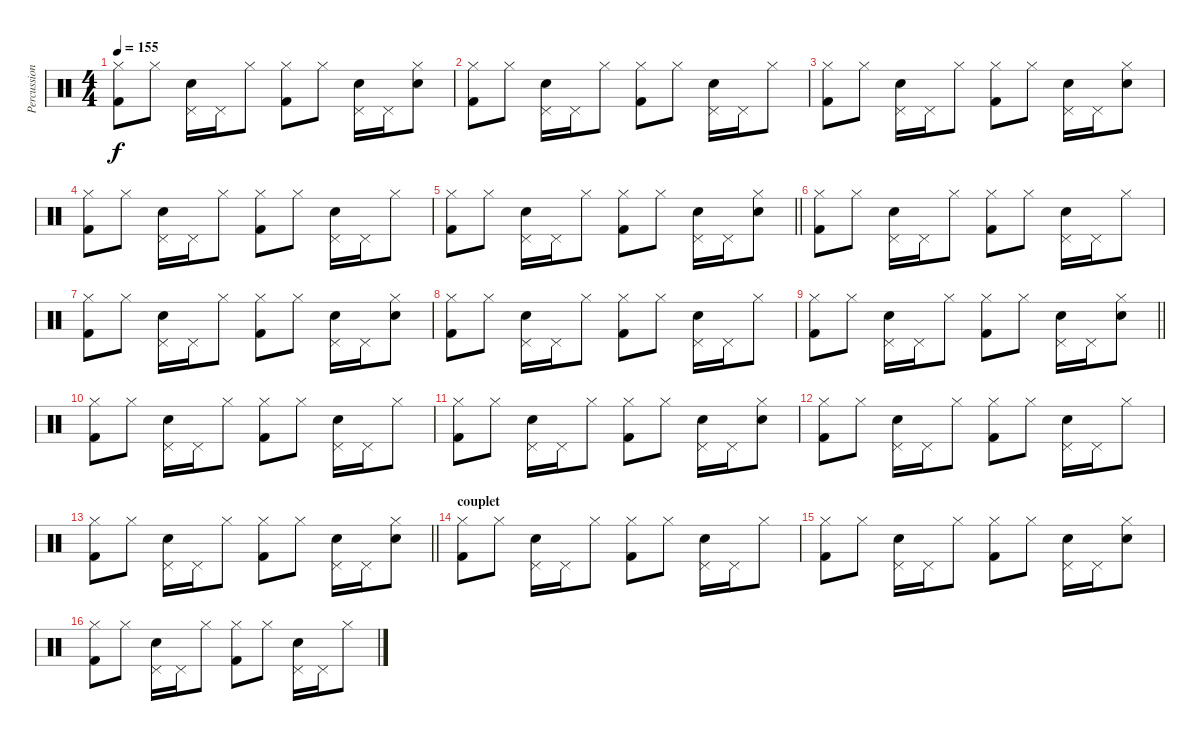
\track ("Percussions" "Percussion") {instrument percussion}
\staff {score}
\articulation defaults
\ts (4 4)
\tempo 155
\clef neutral
\ks c
("Kick (hit) 2" "Hi-Hat (closed)").8{dy f} "Hi-Hat (closed)".8 ("Electric Snare (hit)" "Pedal Hi-Hat (hit)").16 "Pedal Hi-Hat (hit)".16 "Hi-Hat (closed)".8 ("Kick (hit) 2" "Hi-Hat (closed)").8 "Hi-Hat (closed)".8 ("Electric Snare (hit)" "Pedal Hi-Hat (hit)").16 "Pedal Hi-Hat (hit)".16 ("Electric Snare (hit)" "Hi-Hat (closed)").8 |
("Kick (hit) 2" "Hi-Hat (closed)").8 "Hi-Hat (closed)".8 ("Electric Snare (hit)" "Pedal Hi-Hat (hit)").16 "Pedal Hi-Hat (hit)".16 "Hi-Hat (closed)".8 ("Kick (hit) 2" "Hi-Hat (closed)").8 "Hi-Hat (closed)".8 ("Electric Snare (hit)" "Pedal Hi-Hat (hit)").16 "Pedal Hi-Hat (hit)".16 "Hi-Hat (closed)".8 |
("Kick (hit) 2" "Hi-Hat (closed)").8 "Hi-Hat (closed)".8 ("Electric Snare (hit)" "Pedal Hi-Hat (hit)").16 "Pedal Hi-Hat (hit)".16 "Hi-Hat (closed)".8 ("Kick (hit) 2" "Hi-Hat (closed)").8 "Hi-Hat (closed)".8 ("Electric Snare (hit)" "Pedal Hi-Hat (hit)").16 "Pedal Hi-Hat (hit)".16 ("Electric Snare (hit)" "Hi-Hat (closed)").8 |
("Kick (hit) 2" "Hi-Hat (closed)").8 "Hi-Hat (closed)".8 ("Electric Snare (hit)" "Pedal Hi-Hat (hit)").16 "Pedal Hi-Hat (hit)".16 "Hi-Hat (closed)".8 ("Kick (hit) 2" "Hi-Hat (closed)").8 "Hi-Hat (closed)".8 ("Electric Snare (hit)" "Pedal Hi-Hat (hit)").16 "Pedal Hi-Hat (hit)".16 "Hi-Hat (closed)".8 |
\barLineRight lightlight
("Kick (hit) 2" "Hi-Hat (closed)").8 "Hi-Hat (closed)".8 ("Electric Snare (hit)" "Pedal Hi-Hat (hit)").16 "Pedal Hi-Hat (hit)".16 "Hi-Hat (closed)".8 ("Kick (hit) 2" "Hi-Hat (closed)").8 "Hi-Hat (closed)".8 ("Electric Snare (hit)" "Pedal Hi-Hat (hit)").16 "Pedal Hi-Hat (hit)".16 ("Electric Snare (hit)" "Hi-Hat (closed)").8 |
("Kick (hit) 2" "Hi-Hat (closed)").8 "Hi-Hat (closed)".8 ("Electric Snare (hit)" "Pedal Hi-Hat (hit)").16 "Pedal Hi-Hat (hit)".16 "Hi-Hat (closed)".8 ("Kick (hit) 2" "Hi-Hat (closed)").8 "Hi-Hat (closed)".8 ("Electric Snare (hit)" "Pedal Hi-Hat (hit)").16 "Pedal Hi-Hat (hit)".16 "Hi-Hat (closed)".8 |
("Kick (hit) 2" "Hi-Hat (closed)").8 "Hi-Hat (closed)".8 ("Electric Snare (hit)" "Pedal Hi-Hat (hit)").16 "Pedal Hi-Hat (hit)".16 "Hi-Hat (closed)".8 ("Kick (hit) 2" "Hi-Hat (closed)").8 "Hi-Hat (closed)".8 ("Electric Snare (hit)" "Pedal Hi-Hat (hit)").16 "Pedal Hi-Hat (hit)".16 ("Electric Snare (hit)" "Hi-Hat (closed)").8 |
("Kick (hit) 2" "Hi-Hat (closed)").8 "Hi-Hat (closed)".8 ("Electric Snare (hit)" "Pedal Hi-Hat (hit)").16 "Pedal Hi-Hat (hit)".16 "Hi-Hat (closed)".8 ("Kick (hit) 2" "Hi-Hat (closed)").8 "Hi-Hat (closed)".8 ("Electric Snare (hit)" "Pedal Hi-Hat (hit)").16 "Pedal Hi-Hat (hit)".16 "Hi-Hat (closed)".8 |
\barLineRight lightlight
("Kick (hit) 2" "Hi-Hat (closed)").8 "Hi-Hat (closed)".8 ("Electric Snare (hit)" "Pedal Hi-Hat (hit)").16 "Pedal Hi-Hat (hit)".16 "Hi-Hat (closed)".8 ("Kick (hit) 2" "Hi-Hat (closed)").8 "Hi-Hat (closed)".8 ("Electric Snare (hit)" "Pedal Hi-Hat (hit)").16 "Pedal Hi-Hat (hit)".16 ("Electric Snare (hit)" "Hi-Hat (closed)").8 |
("Kick (hit) 2" "Hi-Hat (closed)").8 "Hi-Hat (closed)".8 ("Electric Snare (hit)" "Pedal Hi-Hat (hit)").16 "Pedal Hi-Hat (hit)".16 "Hi-Hat (closed)".8 ("Kick (hit) 2" "Hi-Hat (closed)").8 "Hi-Hat (closed)".8 ("Electric Snare (hit)" "Pedal Hi-Hat (hit)").16 "Pedal Hi-Hat (hit)".16 "Hi-Hat (closed)".8 |
("Kick (hit) 2" "Hi-Hat (closed)").8 "Hi-Hat (closed)".8 ("Electric Snare (hit)" "Pedal Hi-Hat (hit)").16 "Pedal Hi-Hat (hit)".16 "Hi-Hat (closed)".8 ("Kick (hit) 2" "Hi-Hat (closed)").8 "Hi-Hat (closed)".8 ("Electric Snare (hit)" "Pedal Hi-Hat (hit)").16 "Pedal Hi-Hat (hit)".16 ("Electric Snare (hit)" "Hi-Hat (closed)").8 |
("Kick (hit) 2" "Hi-Hat (closed)").8 "Hi-Hat (closed)".8 ("Electric Snare (hit)" "Pedal Hi-Hat (hit)").16 "Pedal Hi-Hat (hit)".16 "Hi-Hat (closed)".8 ("Kick (hit) 2" "Hi-Hat (closed)").8 "Hi-Hat (closed)".8 ("Electric Snare (hit)" "Pedal Hi-Hat (hit)").16 "Pedal Hi-Hat (hit)".16 "Hi-Hat (closed)".8 |
\barLineRight lightlight
("Kick (hit) 2" "Hi-Hat (closed)").8 "Hi-Hat (closed)".8 ("Electric Snare (hit)" "Pedal Hi-Hat (hit)").16 "Pedal Hi-Hat (hit)".16 "Hi-Hat (closed)".8 ("Kick (hit) 2" "Hi-Hat (closed)").8 "Hi-Hat (closed)".8 ("Electric Snare (hit)" "Pedal Hi-Hat (hit)").16 "Pedal Hi-Hat (hit)".16 ("Electric Snare (hit)" "Hi-Hat (closed)").8 |
\section ("" "couplet")
("Kick (hit) 2" "Hi-Hat (closed)").8 "Hi-Hat (closed)".8 ("Electric Snare (hit)" "Pedal Hi-Hat (hit)").16 "Pedal Hi-Hat (hit)".16 "Hi-Hat (closed)".8 ("Kick (hit) 2" "Hi-Hat (closed)").8 "Hi-Hat (closed)".8 ("Electric Snare (hit)" "Pedal Hi-Hat (hit)").16 "Pedal Hi-Hat (hit)".16 "Hi-Hat (closed)".8 |
("Kick (hit) 2" "Hi-Hat (closed)").8 "Hi-Hat (closed)".8 ("Electric Snare (hit)" "Pedal Hi-Hat (hit)").16 "Pedal Hi-Hat (hit)".16 "Hi-Hat (closed)".8 ("Kick (hit) 2" "Hi-Hat (closed)").8 "Hi-Hat (closed)".8 ("Electric Snare (hit)" "Pedal Hi-Hat (hit)").16 "Pedal Hi-Hat (hit)".16 ("Electric Snare (hit)" "Hi-Hat (closed)").8 |
("Kick (hit) 2" "Hi-Hat (closed)").8 "Hi-Hat (closed)".8 ("Electric Snare (hit)" "Pedal Hi-Hat (hit)").16 "Pedal Hi-Hat (hit)".16 "Hi-Hat (closed)".8 ("Kick (hit) 2" "Hi-Hat (closed)").8 "Hi-Hat (closed)".8 ("Electric Snare (hit)" "Pedal Hi-Hat (hit)").16 "Pedal Hi-Hat (hit)".16 "Hi-Hat (closed)".8
